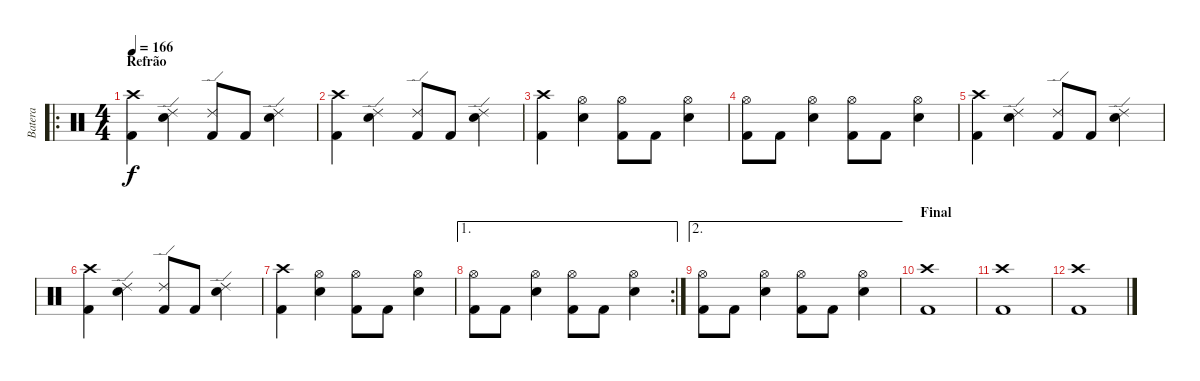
\track ("Batera" "Batera") {instrument percussion}
\staff {score}
\articulation defaults
\ro
\ts (4 4)
\section ("" "Refrão")
\tempo 166
\clef neutral
\ks c
("Crash high (hit)" "Kick (hit) 2").4{dy f} ("Ride (edge) 2" "Snare (hit) 2").4 ("Ride (edge) 2" "Kick (hit) 2").8 "Kick (hit) 2".8 ("Ride (edge) 2" "Snare (hit) 2").4 |
("Crash high (hit)" "Kick (hit) 2").4 ("Ride (edge) 2" "Snare (hit) 2").4 ("Ride (edge) 2" "Kick (hit) 2").8 "Kick (hit) 2".8 ("Ride (edge) 2" "Snare (hit) 2").4 |
("Crash high (hit)" "Kick (hit) 2").4 ("Hi-Hat (open)" "Snare (hit) 2").4 ("Hi-Hat (open)" "Kick (hit) 2").8 "Kick (hit) 2".8 ("Hi-Hat (open)" "Snare (hit) 2").4 |
("Hi-Hat (open)" "Kick (hit) 2").8 "Kick (hit) 2".8 ("Hi-Hat (open)" "Snare (hit) 2").4 ("Hi-Hat (open)" "Kick (hit) 2").8 "Kick (hit) 2".8 ("Hi-Hat (open)" "Snare (hit) 2").4 |
("Crash high (hit)" "Kick (hit) 2").4 ("Ride (edge) 2" "Snare (hit) 2").4 ("Ride (edge) 2" "Kick (hit) 2").8 "Kick (hit) 2".8 ("Ride (edge) 2" "Snare (hit) 2").4 |
("Crash high (hit)" "Kick (hit) 2").4 ("Ride (edge) 2" "Snare (hit) 2").4 ("Ride (edge) 2" "Kick (hit) 2").8 "Kick (hit) 2".8 ("Ride (edge) 2" "Snare (hit) 2").4 |
("Crash high (hit)" "Kick (hit) 2").4 ("Hi-Hat (open)" "Snare (hit) 2").4 ("Hi-Hat (open)" "Kick (hit) 2").8 "Kick (hit) 2".8 ("Hi-Hat (open)" "Snare (hit) 2").4 |
\ae 1
\rc 2
("Hi-Hat (open)" "Kick (hit) 2").8 "Kick (hit) 2".8 ("Hi-Hat (open)" "Snare (hit) 2").4 ("Hi-Hat (open)" "Kick (hit) 2").8 "Kick (hit) 2".8 ("Hi-Hat (open)" "Snare (hit) 2").4 |
\ae 2
("Hi-Hat (open)" "Kick (hit) 2").8 "Kick (hit) 2".8 ("Hi-Hat (open)" "Snare (hit) 2").4 ("Hi-Hat (open)" "Kick (hit) 2").8 "Kick (hit) 2".8 ("Hi-Hat (open)" "Snare (hit) 2").4 |
\section ("" "Final")
("Crash high (hit)" "Kick (hit) 2").1 |
("Crash high (hit)" "Kick (hit) 2").1 |
("Crash high (hit)" "Kick (hit) 2").1
